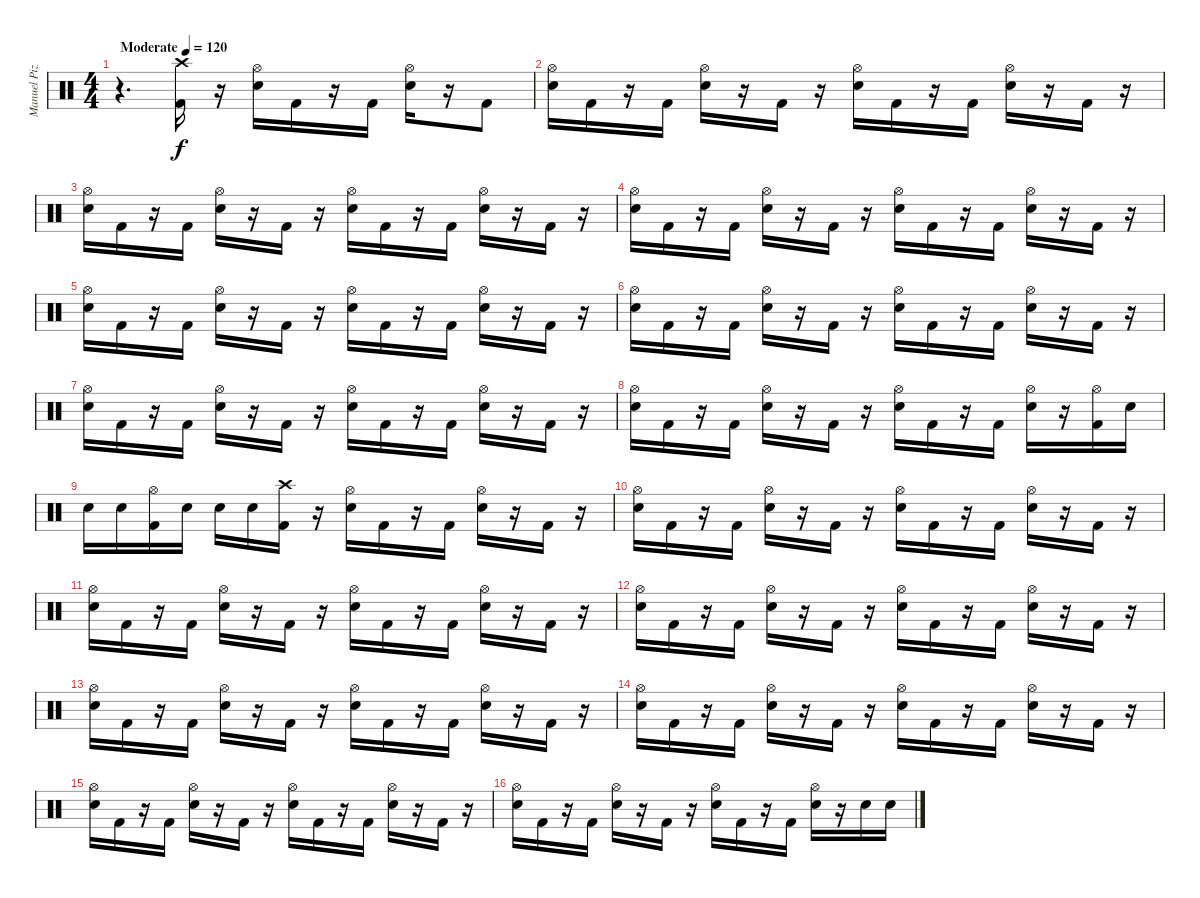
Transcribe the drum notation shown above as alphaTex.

\track ("Manuel Pizarro" "Manuel Piz") {instrument percussion}
\staff {score}
\articulation defaults
\ts (4 4)
\tempo (120 "Moderate")
\clef neutral
\ks c
r.4{d dy f} ("Kick (hit) 2" "Crash high (hit)").16 r.16 ("Electric Snare (hit)" "Hi-Hat (open)").16 "Kick (hit) 2".16 r.16 "Kick (hit) 2".16 ("Electric Snare (hit)" "Hi-Hat (open)").16 r.16 "Kick (hit) 2".8 |
("Electric Snare (hit)" "Hi-Hat (open)").16 "Kick (hit) 2".16 r.16 "Kick (hit) 2".16 ("Electric Snare (hit)" "Hi-Hat (open)").16 r.16 "Kick (hit) 2".16 r.16 ("Electric Snare (hit)" "Hi-Hat (open)").16 "Kick (hit) 2".16 r.16 "Kick (hit) 2".16 ("Electric Snare (hit)" "Hi-Hat (open)").16 r.16 "Kick (hit) 2".16 r.16 |
("Electric Snare (hit)" "Hi-Hat (open)").16 "Kick (hit) 2".16 r.16 "Kick (hit) 2".16 ("Electric Snare (hit)" "Hi-Hat (open)").16 r.16 "Kick (hit) 2".16 r.16 ("Electric Snare (hit)" "Hi-Hat (open)").16 "Kick (hit) 2".16 r.16 "Kick (hit) 2".16 ("Electric Snare (hit)" "Hi-Hat (open)").16 r.16 "Kick (hit) 2".16 r.16 |
("Electric Snare (hit)" "Hi-Hat (open)").16 "Kick (hit) 2".16 r.16 "Kick (hit) 2".16 ("Electric Snare (hit)" "Hi-Hat (open)").16 r.16 "Kick (hit) 2".16 r.16 ("Electric Snare (hit)" "Hi-Hat (open)").16 "Kick (hit) 2".16 r.16 "Kick (hit) 2".16 ("Electric Snare (hit)" "Hi-Hat (open)").16 r.16 "Kick (hit) 2".16 r.16 |
("Electric Snare (hit)" "Hi-Hat (open)").16 "Kick (hit) 2".16 r.16 "Kick (hit) 2".16 ("Electric Snare (hit)" "Hi-Hat (open)").16 r.16 "Kick (hit) 2".16 r.16 ("Electric Snare (hit)" "Hi-Hat (open)").16 "Kick (hit) 2".16 r.16 "Kick (hit) 2".16 ("Electric Snare (hit)" "Hi-Hat (open)").16 r.16 "Kick (hit) 2".16 r.16 |
("Electric Snare (hit)" "Hi-Hat (open)").16 "Kick (hit) 2".16 r.16 "Kick (hit) 2".16 ("Electric Snare (hit)" "Hi-Hat (open)").16 r.16 "Kick (hit) 2".16 r.16 ("Electric Snare (hit)" "Hi-Hat (open)").16 "Kick (hit) 2".16 r.16 "Kick (hit) 2".16 ("Electric Snare (hit)" "Hi-Hat (open)").16 r.16 "Kick (hit) 2".16 r.16 |
("Electric Snare (hit)" "Hi-Hat (open)").16 "Kick (hit) 2".16 r.16 "Kick (hit) 2".16 ("Electric Snare (hit)" "Hi-Hat (open)").16 r.16 "Kick (hit) 2".16 r.16 ("Electric Snare (hit)" "Hi-Hat (open)").16 "Kick (hit) 2".16 r.16 "Kick (hit) 2".16 ("Electric Snare (hit)" "Hi-Hat (open)").16 r.16 "Kick (hit) 2".16 r.16 |
("Electric Snare (hit)" "Hi-Hat (open)").16 "Kick (hit) 2".16 r.16 "Kick (hit) 2".16 ("Electric Snare (hit)" "Hi-Hat (open)").16 r.16 "Kick (hit) 2".16 r.16 ("Electric Snare (hit)" "Hi-Hat (open)").16 "Kick (hit) 2".16 r.16 "Kick (hit) 2".16 ("Electric Snare (hit)" "Hi-Hat (open)").16 r.16 ("Kick (hit) 2" "Hi-Hat (open)").16 "Electric Snare (hit)".16 |
"Electric Snare (hit)".16 "Electric Snare (hit)".16 ("Kick (hit) 2" "Hi-Hat (open)").16 "Electric Snare (hit)".16 "Electric Snare (hit)".16 "Electric Snare (hit)".16 ("Kick (hit) 2" "Crash high (hit)").16 r.16 ("Electric Snare (hit)" "Hi-Hat (open)").16 "Kick (hit) 2".16 r.16 "Kick (hit) 2".16 ("Electric Snare (hit)" "Hi-Hat (open)").16 r.16 "Kick (hit) 2".16 r.16 |
("Electric Snare (hit)" "Hi-Hat (open)").16 "Kick (hit) 2".16 r.16 "Kick (hit) 2".16 ("Electric Snare (hit)" "Hi-Hat (open)").16 r.16 "Kick (hit) 2".16 r.16 ("Electric Snare (hit)" "Hi-Hat (open)").16 "Kick (hit) 2".16 r.16 "Kick (hit) 2".16 ("Electric Snare (hit)" "Hi-Hat (open)").16 r.16 "Kick (hit) 2".16 r.16 |
("Electric Snare (hit)" "Hi-Hat (open)").16 "Kick (hit) 2".16 r.16 "Kick (hit) 2".16 ("Electric Snare (hit)" "Hi-Hat (open)").16 r.16 "Kick (hit) 2".16 r.16 ("Electric Snare (hit)" "Hi-Hat (open)").16 "Kick (hit) 2".16 r.16 "Kick (hit) 2".16 ("Electric Snare (hit)" "Hi-Hat (open)").16 r.16 "Kick (hit) 2".16 r.16 |
("Electric Snare (hit)" "Hi-Hat (open)").16 "Kick (hit) 2".16 r.16 "Kick (hit) 2".16 ("Electric Snare (hit)" "Hi-Hat (open)").16 r.16 "Kick (hit) 2".16 r.16 ("Electric Snare (hit)" "Hi-Hat (open)").16 "Kick (hit) 2".16 r.16 "Kick (hit) 2".16 ("Electric Snare (hit)" "Hi-Hat (open)").16 r.16 "Kick (hit) 2".16 r.16 |
("Electric Snare (hit)" "Hi-Hat (open)").16 "Kick (hit) 2".16 r.16 "Kick (hit) 2".16 ("Electric Snare (hit)" "Hi-Hat (open)").16 r.16 "Kick (hit) 2".16 r.16 ("Electric Snare (hit)" "Hi-Hat (open)").16 "Kick (hit) 2".16 r.16 "Kick (hit) 2".16 ("Electric Snare (hit)" "Hi-Hat (open)").16 r.16 "Kick (hit) 2".16 r.16 |
("Electric Snare (hit)" "Hi-Hat (open)").16 "Kick (hit) 2".16 r.16 "Kick (hit) 2".16 ("Electric Snare (hit)" "Hi-Hat (open)").16 r.16 "Kick (hit) 2".16 r.16 ("Electric Snare (hit)" "Hi-Hat (open)").16 "Kick (hit) 2".16 r.16 "Kick (hit) 2".16 ("Electric Snare (hit)" "Hi-Hat (open)").16 r.16 "Kick (hit) 2".16 r.16 |
("Electric Snare (hit)" "Hi-Hat (open)").16 "Kick (hit) 2".16 r.16 "Kick (hit) 2".16 ("Electric Snare (hit)" "Hi-Hat (open)").16 r.16 "Kick (hit) 2".16 r.16 ("Electric Snare (hit)" "Hi-Hat (open)").16 "Kick (hit) 2".16 r.16 "Kick (hit) 2".16 ("Electric Snare (hit)" "Hi-Hat (open)").16 r.16 "Kick (hit) 2".16 r.16 |
("Electric Snare (hit)" "Hi-Hat (open)").16 "Kick (hit) 2".16 r.16 "Kick (hit) 2".16 ("Electric Snare (hit)" "Hi-Hat (open)").16 r.16 "Kick (hit) 2".16 r.16 ("Electric Snare (hit)" "Hi-Hat (open)").16 "Kick (hit) 2".16 r.16 "Kick (hit) 2".16 ("Electric Snare (hit)" "Hi-Hat (open)").16 r.16 "Electric Snare (hit)".16 "Electric Snare (hit)".16
